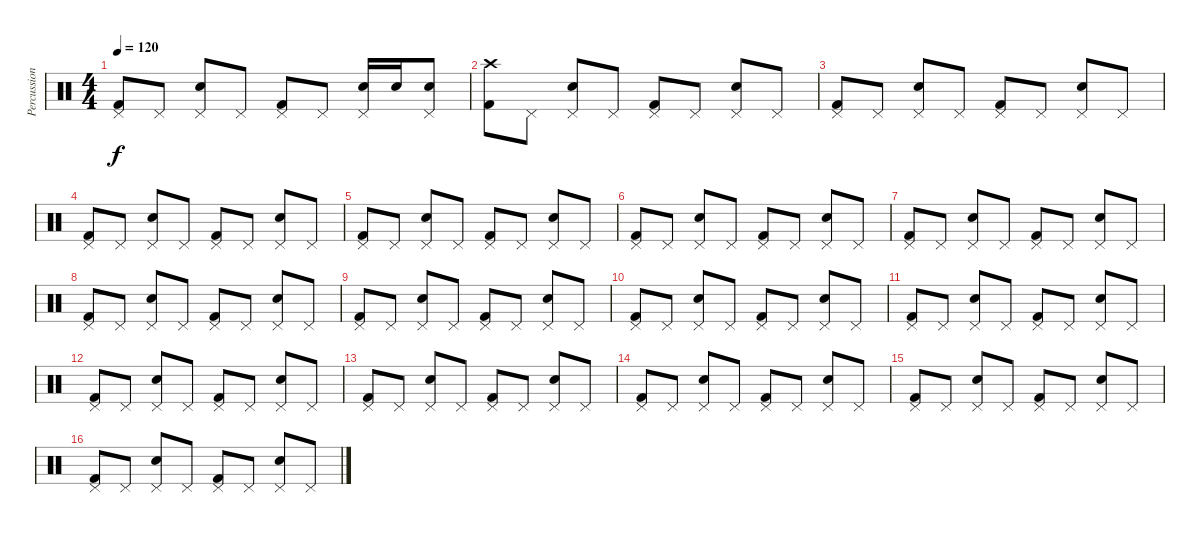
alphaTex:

\track ("Percussions" "Percussion") {instrument percussion}
\staff {score}
\articulation defaults
\ts (4 4)
\tempo 120
\clef neutral
\ks c
("Pedal Hi-Hat (hit)" "Kick (hit) 2").8{dy f} "Pedal Hi-Hat (hit)".8 ("Pedal Hi-Hat (hit)" "Snare (hit) 2").8 "Pedal Hi-Hat (hit)".8 ("Pedal Hi-Hat (hit)" "Kick (hit) 2").8 "Pedal Hi-Hat (hit)".8 ("Pedal Hi-Hat (hit)" "Snare (hit) 2").16 "Snare (hit) 2".16 ("Pedal Hi-Hat (hit)" "Snare (hit) 2").8 |
("Crash high (hit)" "Kick (hit) 2").8 "Pedal Hi-Hat (hit)".8 ("Pedal Hi-Hat (hit)" "Snare (hit) 2").8 "Pedal Hi-Hat (hit)".8 ("Pedal Hi-Hat (hit)" "Kick (hit) 2").8 "Pedal Hi-Hat (hit)".8 ("Pedal Hi-Hat (hit)" "Snare (hit) 2").8 "Pedal Hi-Hat (hit)".8 |
("Pedal Hi-Hat (hit)" "Kick (hit) 2").8 "Pedal Hi-Hat (hit)".8 ("Pedal Hi-Hat (hit)" "Snare (hit) 2").8 "Pedal Hi-Hat (hit)".8 ("Pedal Hi-Hat (hit)" "Kick (hit) 2").8 "Pedal Hi-Hat (hit)".8 ("Pedal Hi-Hat (hit)" "Snare (hit) 2").8 "Pedal Hi-Hat (hit)".8 |
("Pedal Hi-Hat (hit)" "Kick (hit) 2").8 "Pedal Hi-Hat (hit)".8 ("Pedal Hi-Hat (hit)" "Snare (hit) 2").8 "Pedal Hi-Hat (hit)".8 ("Pedal Hi-Hat (hit)" "Kick (hit) 2").8 "Pedal Hi-Hat (hit)".8 ("Pedal Hi-Hat (hit)" "Snare (hit) 2").8 "Pedal Hi-Hat (hit)".8 |
("Pedal Hi-Hat (hit)" "Kick (hit) 2").8 "Pedal Hi-Hat (hit)".8 ("Pedal Hi-Hat (hit)" "Snare (hit) 2").8 "Pedal Hi-Hat (hit)".8 ("Pedal Hi-Hat (hit)" "Kick (hit) 2").8 "Pedal Hi-Hat (hit)".8 ("Pedal Hi-Hat (hit)" "Snare (hit) 2").8 "Pedal Hi-Hat (hit)".8 |
("Pedal Hi-Hat (hit)" "Kick (hit) 2").8 "Pedal Hi-Hat (hit)".8 ("Pedal Hi-Hat (hit)" "Snare (hit) 2").8 "Pedal Hi-Hat (hit)".8 ("Pedal Hi-Hat (hit)" "Kick (hit) 2").8 "Pedal Hi-Hat (hit)".8 ("Pedal Hi-Hat (hit)" "Snare (hit) 2").8 "Pedal Hi-Hat (hit)".8 |
("Pedal Hi-Hat (hit)" "Kick (hit) 2").8 "Pedal Hi-Hat (hit)".8 ("Pedal Hi-Hat (hit)" "Snare (hit) 2").8 "Pedal Hi-Hat (hit)".8 ("Pedal Hi-Hat (hit)" "Kick (hit) 2").8 "Pedal Hi-Hat (hit)".8 ("Pedal Hi-Hat (hit)" "Snare (hit) 2").8 "Pedal Hi-Hat (hit)".8 |
("Pedal Hi-Hat (hit)" "Kick (hit) 2").8 "Pedal Hi-Hat (hit)".8 ("Pedal Hi-Hat (hit)" "Snare (hit) 2").8 "Pedal Hi-Hat (hit)".8 ("Pedal Hi-Hat (hit)" "Kick (hit) 2").8 "Pedal Hi-Hat (hit)".8 ("Pedal Hi-Hat (hit)" "Snare (hit) 2").8 "Pedal Hi-Hat (hit)".8 |
("Pedal Hi-Hat (hit)" "Kick (hit) 2").8 "Pedal Hi-Hat (hit)".8 ("Pedal Hi-Hat (hit)" "Snare (hit) 2").8 "Pedal Hi-Hat (hit)".8 ("Pedal Hi-Hat (hit)" "Kick (hit) 2").8 "Pedal Hi-Hat (hit)".8 ("Pedal Hi-Hat (hit)" "Snare (hit) 2").8 "Pedal Hi-Hat (hit)".8 |
("Pedal Hi-Hat (hit)" "Kick (hit) 2").8 "Pedal Hi-Hat (hit)".8 ("Pedal Hi-Hat (hit)" "Snare (hit) 2").8 "Pedal Hi-Hat (hit)".8 ("Pedal Hi-Hat (hit)" "Kick (hit) 2").8 "Pedal Hi-Hat (hit)".8 ("Pedal Hi-Hat (hit)" "Snare (hit) 2").8 "Pedal Hi-Hat (hit)".8 |
("Pedal Hi-Hat (hit)" "Kick (hit) 2").8 "Pedal Hi-Hat (hit)".8 ("Pedal Hi-Hat (hit)" "Snare (hit) 2").8 "Pedal Hi-Hat (hit)".8 ("Pedal Hi-Hat (hit)" "Kick (hit) 2").8 "Pedal Hi-Hat (hit)".8 ("Pedal Hi-Hat (hit)" "Snare (hit) 2").8 "Pedal Hi-Hat (hit)".8 |
("Pedal Hi-Hat (hit)" "Kick (hit) 2").8 "Pedal Hi-Hat (hit)".8 ("Pedal Hi-Hat (hit)" "Snare (hit) 2").8 "Pedal Hi-Hat (hit)".8 ("Pedal Hi-Hat (hit)" "Kick (hit) 2").8 "Pedal Hi-Hat (hit)".8 ("Pedal Hi-Hat (hit)" "Snare (hit) 2").8 "Pedal Hi-Hat (hit)".8 |
("Pedal Hi-Hat (hit)" "Kick (hit) 2").8 "Pedal Hi-Hat (hit)".8 ("Pedal Hi-Hat (hit)" "Snare (hit) 2").8 "Pedal Hi-Hat (hit)".8 ("Pedal Hi-Hat (hit)" "Kick (hit) 2").8 "Pedal Hi-Hat (hit)".8 ("Pedal Hi-Hat (hit)" "Snare (hit) 2").8 "Pedal Hi-Hat (hit)".8 |
("Pedal Hi-Hat (hit)" "Kick (hit) 2").8 "Pedal Hi-Hat (hit)".8 ("Pedal Hi-Hat (hit)" "Snare (hit) 2").8 "Pedal Hi-Hat (hit)".8 ("Pedal Hi-Hat (hit)" "Kick (hit) 2").8 "Pedal Hi-Hat (hit)".8 ("Pedal Hi-Hat (hit)" "Snare (hit) 2").8 "Pedal Hi-Hat (hit)".8 |
("Pedal Hi-Hat (hit)" "Kick (hit) 2").8 "Pedal Hi-Hat (hit)".8 ("Pedal Hi-Hat (hit)" "Snare (hit) 2").8 "Pedal Hi-Hat (hit)".8 ("Pedal Hi-Hat (hit)" "Kick (hit) 2").8 "Pedal Hi-Hat (hit)".8 ("Pedal Hi-Hat (hit)" "Snare (hit) 2").8 "Pedal Hi-Hat (hit)".8 |
("Pedal Hi-Hat (hit)" "Kick (hit) 2").8 "Pedal Hi-Hat (hit)".8 ("Pedal Hi-Hat (hit)" "Snare (hit) 2").8 "Pedal Hi-Hat (hit)".8 ("Pedal Hi-Hat (hit)" "Kick (hit) 2").8 "Pedal Hi-Hat (hit)".8 ("Pedal Hi-Hat (hit)" "Snare (hit) 2").8 "Pedal Hi-Hat (hit)".8
